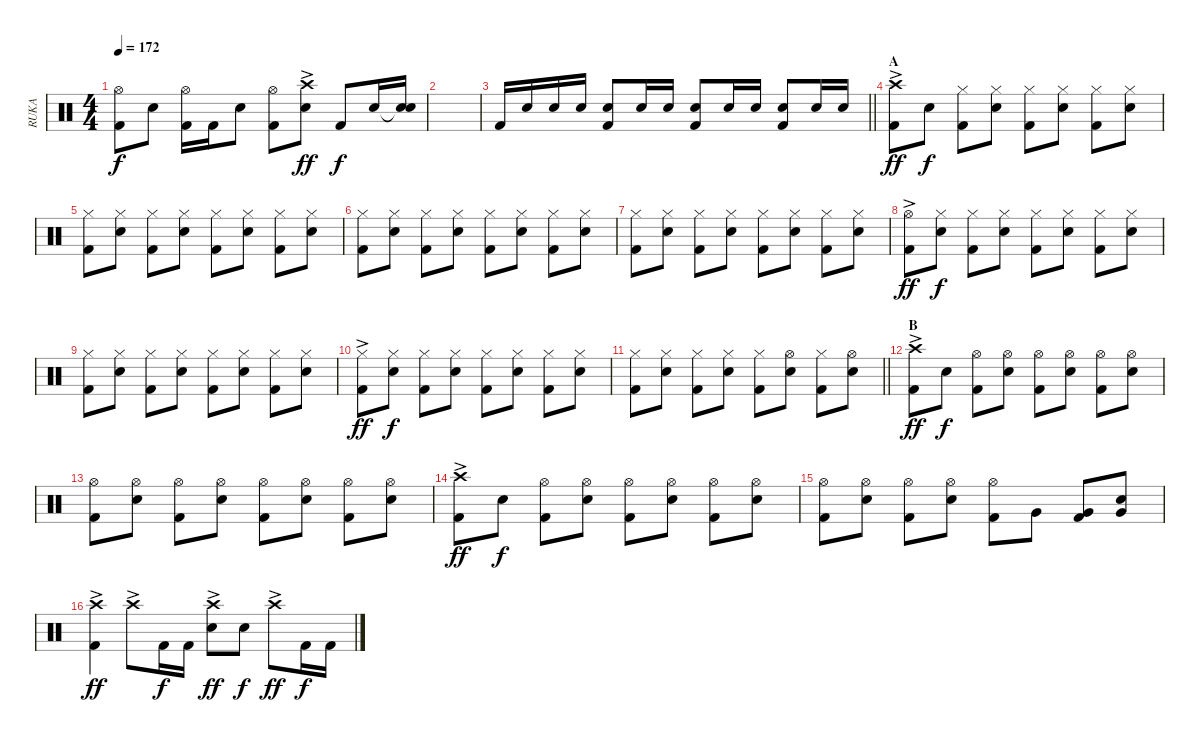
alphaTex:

\track ("RUKA" "RUKA") {instrument percussion}
\staff {score}
\articulation defaults
\ts (4 4)
\tempo 172
\clef neutral
\ks c
("Hi-Hat (open)" "Kick (hit) 2").8{dy f} "Snare (hit) 2".8 ("Hi-Hat (open)" "Kick (hit) 2").16 "Kick (hit) 2".16 "Snare (hit) 2".8 ("Hi-Hat (open)" "Kick (hit) 2").8 ("Crash high (hit)"{ac} "Snare (hit) 2").8{dy ff} "Kick (hit) 2".8{dy f} "Snare (hit) 2".16 ("Snare (hit)"{t} "Snare (hit) 2").16 |
|
\barLineRight lightlight "Kick (hit) 2".16 "Snare (hit) 2".16 "Snare (hit) 2".16 "Snare (hit) 2".16
("Snare (hit) 2" "Kick (hit) 2").8 "Snare (hit) 2".16 "Snare (hit) 2".16 ("Snare (hit) 2" "Kick (hit) 2").8 "Snare (hit) 2".16 "Snare (hit) 2".16 ("Snare (hit) 2" "Kick (hit) 2").8 "Snare (hit) 2".16 "Snare (hit) 2".16 |
\section ("" "A")
("Crash high (hit)"{ac} "Kick (hit) 2").8{dy ff} "Snare (hit) 2".8{dy f} ("Hi-Hat (closed)" "Kick (hit) 2").8 ("Hi-Hat (closed)" "Snare (hit) 2").8 ("Hi-Hat (closed)" "Kick (hit) 2").8 ("Hi-Hat (closed)" "Snare (hit) 2").8 ("Hi-Hat (closed)" "Kick (hit) 2").8 ("Hi-Hat (closed)" "Snare (hit) 2").8 |
("Hi-Hat (closed)" "Kick (hit) 2").8 ("Hi-Hat (closed)" "Snare (hit) 2").8 ("Hi-Hat (closed)" "Kick (hit) 2").8 ("Hi-Hat (closed)" "Snare (hit) 2").8 ("Hi-Hat (closed)" "Kick (hit) 2").8 ("Hi-Hat (closed)" "Snare (hit) 2").8 ("Hi-Hat (closed)" "Kick (hit) 2").8 ("Hi-Hat (closed)" "Snare (hit) 2").8 |
("Hi-Hat (closed)" "Kick (hit) 2").8 ("Hi-Hat (closed)" "Snare (hit) 2").8 ("Hi-Hat (closed)" "Kick (hit) 2").8 ("Hi-Hat (closed)" "Snare (hit) 2").8 ("Hi-Hat (closed)" "Kick (hit) 2").8 ("Hi-Hat (closed)" "Snare (hit) 2").8 ("Hi-Hat (closed)" "Kick (hit) 2").8 ("Hi-Hat (closed)" "Snare (hit) 2").8 |
("Hi-Hat (closed)" "Kick (hit) 2").8 ("Hi-Hat (closed)" "Snare (hit) 2").8 ("Hi-Hat (closed)" "Kick (hit) 2").8 ("Hi-Hat (closed)" "Snare (hit) 2").8 ("Hi-Hat (closed)" "Kick (hit) 2").8 ("Hi-Hat (closed)" "Snare (hit) 2").8 ("Hi-Hat (closed)" "Kick (hit) 2").8 ("Hi-Hat (closed)" "Snare (hit) 2").8 |
("Hi-Hat (open)"{ac} "Kick (hit) 2").8{dy ff} ("Hi-Hat (closed)" "Snare (hit) 2").8{dy f} ("Hi-Hat (closed)" "Kick (hit) 2").8 ("Hi-Hat (closed)" "Snare (hit) 2").8 ("Hi-Hat (closed)" "Kick (hit) 2").8 ("Hi-Hat (closed)" "Snare (hit) 2").8 ("Hi-Hat (closed)" "Kick (hit) 2").8 ("Hi-Hat (closed)" "Snare (hit) 2").8 |
("Hi-Hat (closed)" "Kick (hit) 2").8 ("Hi-Hat (closed)" "Snare (hit) 2").8 ("Hi-Hat (closed)" "Kick (hit) 2").8 ("Hi-Hat (closed)" "Snare (hit) 2").8 ("Hi-Hat (closed)" "Kick (hit) 2").8 ("Hi-Hat (closed)" "Snare (hit) 2").8 ("Hi-Hat (closed)" "Kick (hit) 2").8 ("Hi-Hat (closed)" "Snare (hit) 2").8 |
("Hi-Hat (closed)"{ac} "Kick (hit) 2").8{dy ff} ("Hi-Hat (closed)" "Snare (hit) 2").8{dy f} ("Hi-Hat (closed)" "Kick (hit) 2").8 ("Hi-Hat (closed)" "Snare (hit) 2").8 ("Hi-Hat (closed)" "Kick (hit) 2").8 ("Hi-Hat (closed)" "Snare (hit) 2").8 ("Hi-Hat (closed)" "Kick (hit) 2").8 ("Hi-Hat (closed)" "Snare (hit) 2").8 |
\barLineRight lightlight
("Hi-Hat (closed)" "Kick (hit) 2").8 ("Hi-Hat (closed)" "Snare (hit) 2").8 ("Hi-Hat (closed)" "Kick (hit) 2").8 ("Hi-Hat (closed)" "Snare (hit) 2").8 ("Hi-Hat (closed)" "Kick (hit) 2").8 ("Hi-Hat (open)" "Snare (hit) 2").8 ("Hi-Hat (closed)" "Kick (hit) 2").8 ("Hi-Hat (open)" "Snare (hit) 2").8 |
\section ("" "B")
("Crash high (hit)"{ac} "Kick (hit) 2").8{dy ff} "Snare (hit) 2".8{dy f} ("Hi-Hat (open)" "Kick (hit) 2").8 ("Hi-Hat (open)" "Snare (hit) 2").8 ("Hi-Hat (open)" "Kick (hit) 2").8 ("Hi-Hat (open)" "Snare (hit) 2").8 ("Hi-Hat (open)" "Kick (hit) 2").8 ("Hi-Hat (open)" "Snare (hit) 2").8 |
("Hi-Hat (open)" "Kick (hit) 2").8 ("Hi-Hat (open)" "Snare (hit) 2").8 ("Hi-Hat (open)" "Kick (hit) 2").8 ("Hi-Hat (open)" "Snare (hit) 2").8 ("Hi-Hat (open)" "Kick (hit) 2").8 ("Hi-Hat (open)" "Snare (hit) 2").8 ("Hi-Hat (open)" "Kick (hit) 2").8 ("Hi-Hat (open)" "Snare (hit) 2").8 |
("Crash high (hit)"{ac} "Kick (hit) 2").8{dy ff} "Snare (hit) 2".8{dy f} ("Hi-Hat (open)" "Kick (hit) 2").8 ("Hi-Hat (open)" "Snare (hit) 2").8 ("Hi-Hat (open)" "Kick (hit) 2").8 ("Hi-Hat (open)" "Snare (hit) 2").8 ("Hi-Hat (open)" "Kick (hit) 2").8 ("Hi-Hat (open)" "Snare (hit) 2").8 |
("Hi-Hat (open)" "Kick (hit) 2").8 ("Hi-Hat (open)" "Snare (hit) 2").8 ("Hi-Hat (open)" "Kick (hit) 2").8 ("Hi-Hat (open)" "Snare (hit) 2").8 ("Hi-Hat (open)" "Kick (hit) 2").8 "Very Low Tom (hit)".8 ("Very Low Tom (hit)" "Kick (hit) 2").8 ("Snare (hit) 2" "Very Low Tom (hit)").8 |
("Crash high (hit)"{ac} "Kick (hit) 2").4{dy ff} "Crash high (hit)"{ac}.8 "Kick (hit) 2".16{dy f} "Kick (hit) 2".16 ("Crash high (hit)"{ac} "Snare (hit) 2").8{dy ff} "Snare (hit) 2".8{dy f} "Crash high (hit)"{ac}.8{dy ff} "Kick (hit) 2".16{dy f} "Kick (hit) 2".16
